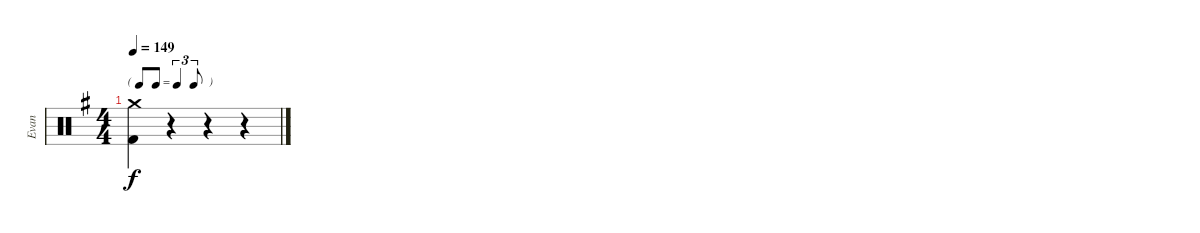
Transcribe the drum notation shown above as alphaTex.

\track ("Evan" "Evan") {instrument percussion}
\staff {score}
\articulation defaults
\ts (4 4)
\tf triplet8th
\tempo 149
\clef neutral
\ks g
("Crash medium (hit)" "Kick (hit) 2").4{dy f} r.4 r.4 r.4
